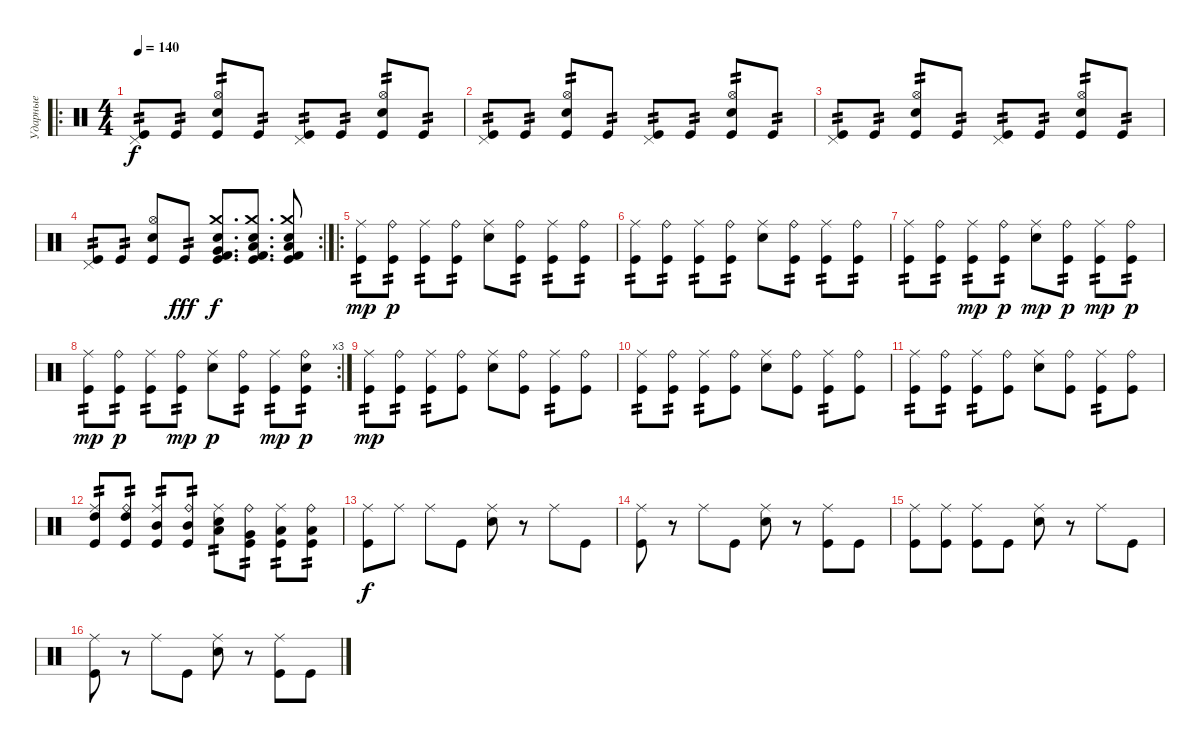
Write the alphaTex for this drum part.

\track ("Ударные" "Ударные") {instrument percussion}
\staff {score}
\articulation defaults
\ro
\ts (4 4)
\tempo 140
\clef neutral
\ks c
("Pedal Hi-Hat (hit)" "Kick (hit)").8{tp 2 dy f} "Kick (hit)".8{tp 2} ("Hi-Hat (open)" "Electric Snare (hit)" "Kick (hit)").8{tp 2} "Kick (hit)".8{tp 2} ("Pedal Hi-Hat (hit)" "Kick (hit)").8{tp 2} "Kick (hit)".8{tp 2} ("Hi-Hat (open)" "Electric Snare (hit)" "Kick (hit)").8{tp 2} "Kick (hit)".8{tp 2} |
("Pedal Hi-Hat (hit)" "Kick (hit)").8{tp 2} "Kick (hit)".8{tp 2} ("Hi-Hat (open)" "Electric Snare (hit)" "Kick (hit)").8{tp 2} "Kick (hit)".8{tp 2} ("Pedal Hi-Hat (hit)" "Kick (hit)").8{tp 2} "Kick (hit)".8{tp 2} ("Hi-Hat (open)" "Electric Snare (hit)" "Kick (hit)").8{tp 2} "Kick (hit)".8{tp 2} |
("Pedal Hi-Hat (hit)" "Kick (hit)").8{tp 2} "Kick (hit)".8{tp 2} ("Hi-Hat (open)" "Electric Snare (hit)" "Kick (hit)").8{tp 2} "Kick (hit)".8{tp 2} ("Pedal Hi-Hat (hit)" "Kick (hit)").8{tp 2} "Kick (hit)".8{tp 2} ("Hi-Hat (open)" "Electric Snare (hit)" "Kick (hit)").8{tp 2} "Kick (hit)".8{tp 2} |
\rc 2
("Pedal Hi-Hat (hit)" "Kick (hit)").8{tp 2} "Kick (hit)".8{tp 2} ("Hi-Hat (open)" "Electric Snare (hit)" "Kick (hit)").8 "Kick (hit)".8{tp 2 dy fff} ("Kick (hit) 2" "Crash medium (hit)" "Very Low Tom (hit)" "Electric Snare (hit)" "Kick (hit)").8{d dy f} ("Kick (hit) 2" "Crash medium (hit)" "Low Floor Tom (hit)" "Electric Snare (hit)" "Kick (hit)").8{d} ("Kick (hit) 2" "Crash medium (hit)" "Low Floor Tom (hit)" "Electric Snare (hit)" "Kick (hit)").8 |
\ro
("Ride (middle)" "Kick (hit)").8{tp 2 dy mp} ("Ride (bell)" "Kick (hit)").8{tp 2 dy p} ("Ride (middle)" "Kick (hit)").8{tp 2} ("Ride (bell)" "Kick (hit)").8{tp 2} ("Ride (middle)" "Electric Snare (hit)").8 ("Ride (bell)" "Kick (hit)").8{tp 2} ("Ride (middle)" "Kick (hit)").8{tp 2} ("Ride (bell)" "Kick (hit)").8{tp 2} |
("Ride (middle)" "Kick (hit)").8{tp 2} ("Ride (bell)" "Kick (hit)").8{tp 2} ("Ride (middle)" "Kick (hit)").8{tp 2} ("Ride (bell)" "Kick (hit)").8{tp 2} ("Ride (middle)" "Electric Snare (hit)").8 ("Ride (bell)" "Kick (hit)").8{tp 2} ("Ride (middle)" "Kick (hit)").8{tp 2} ("Ride (bell)" "Kick (hit)").8{tp 2} |
("Ride (middle)" "Kick (hit)").8{tp 2} ("Ride (bell)" "Kick (hit)").8{tp 2} ("Ride (middle)" "Kick (hit)").8{tp 2 dy mp} ("Ride (bell)" "Kick (hit)").8{tp 2 dy p} ("Ride (middle)" "Electric Snare (hit)").8{dy mp} ("Ride (bell)" "Kick (hit)").8{tp 2 dy p} ("Ride (middle)" "Kick (hit)").8{tp 2 dy mp} ("Ride (bell)" "Kick (hit)").8{tp 2 dy p} |
\rc 3
("Ride (middle)" "Kick (hit)").8{tp 2 dy mp} ("Ride (bell)" "Kick (hit)").8{tp 2 dy p} ("Ride (middle)" "Kick (hit)").8{tp 2} ("Ride (bell)" "Kick (hit)").8{tp 2 dy mp} ("Ride (middle)" "Electric Snare (hit)").8{dy p} ("Ride (bell)" "Kick (hit)").8{tp 2} ("Ride (middle)" "Kick (hit)").8{tp 2 dy mp} ("Ride (bell)" "Electric Snare (hit)" "Kick (hit)").8{tp 2 dy p} |
("Ride (middle)" "Kick (hit)").8{tp 2 dy mp} ("Ride (bell)" "Kick (hit)").8{tp 2} ("Ride (middle)" "Kick (hit)").8{tp 2} ("Ride (bell)" "Kick (hit)").8 ("Ride (middle)" "Electric Snare (hit)").8 ("Ride (bell)" "Kick (hit)").8 ("Ride (middle)" "Kick (hit)").8{tp 2} ("Ride (bell)" "Kick (hit)").8 |
("Ride (middle)" "Kick (hit)").8{tp 2} ("Ride (bell)" "Kick (hit)").8{tp 2} ("Ride (middle)" "Kick (hit)").8{tp 2} ("Ride (bell)" "Kick (hit)").8 ("Ride (middle)" "Electric Snare (hit)").8 ("Ride (bell)" "Kick (hit)").8 ("Ride (middle)" "Kick (hit)").8{tp 2} ("Ride (bell)" "Kick (hit)").8 |
("Ride (middle)" "Kick (hit)").8{tp 2} ("Ride (bell)" "Kick (hit)").8{tp 2} ("Ride (middle)" "Kick (hit)").8{tp 2} ("Ride (bell)" "Kick (hit)").8 ("Ride (middle)" "Electric Snare (hit)").8 ("Ride (bell)" "Kick (hit)").8 ("Ride (middle)" "Kick (hit)").8{tp 2} ("Ride (bell)" "Kick (hit)").8 |
("High Tom (hit)" "Ride (middle)" "Kick (hit)").8{tp 2} ("High Tom (hit)" "Ride (bell)" "Kick (hit)").8{tp 2} ("Mid Tom (hit)" "Ride (middle)" "Kick (hit)").8{tp 2} ("Mid Tom (hit)" "Ride (bell)" "Kick (hit)").8{tp 2} ("Low Tom (hit)" "Ride (middle)" "Electric Snare (hit)").8{tp 2} ("Very Low Tom (hit)" "Ride (bell)" "Kick (hit)").8{tp 2} ("Low Floor Tom (hit)" "Ride (middle)" "Kick (hit)").8{tp 2} ("Low Floor Tom (hit)" "Ride (bell)" "Kick (hit)").8{tp 2} |
("Ride (middle)" "Kick (hit)").8{dy f} "Ride (middle)".8 "Ride (middle)".8 "Kick (hit)".8 ("Ride (middle)" "Electric Snare (hit)").8 r.8 "Ride (middle)".8 "Kick (hit)".8 |
("Ride (middle)" "Kick (hit)").8 r.8 "Ride (middle)".8 "Kick (hit)".8 ("Ride (middle)" "Electric Snare (hit)").8 r.8 ("Ride (middle)" "Kick (hit)").8 "Kick (hit)".8 |
("Ride (middle)" "Kick (hit)").8 ("Ride (middle)" "Kick (hit)").8 ("Ride (middle)" "Kick (hit)").8 "Kick (hit)".8 ("Ride (middle)" "Electric Snare (hit)").8 r.8 "Ride (middle)".8 "Kick (hit)".8 |
("Ride (middle)" "Kick (hit)").8 r.8 "Ride (middle)".8 "Kick (hit)".8 ("Ride (middle)" "Electric Snare (hit)").8 r.8 ("Ride (middle)" "Kick (hit)").8 "Kick (hit)".8
